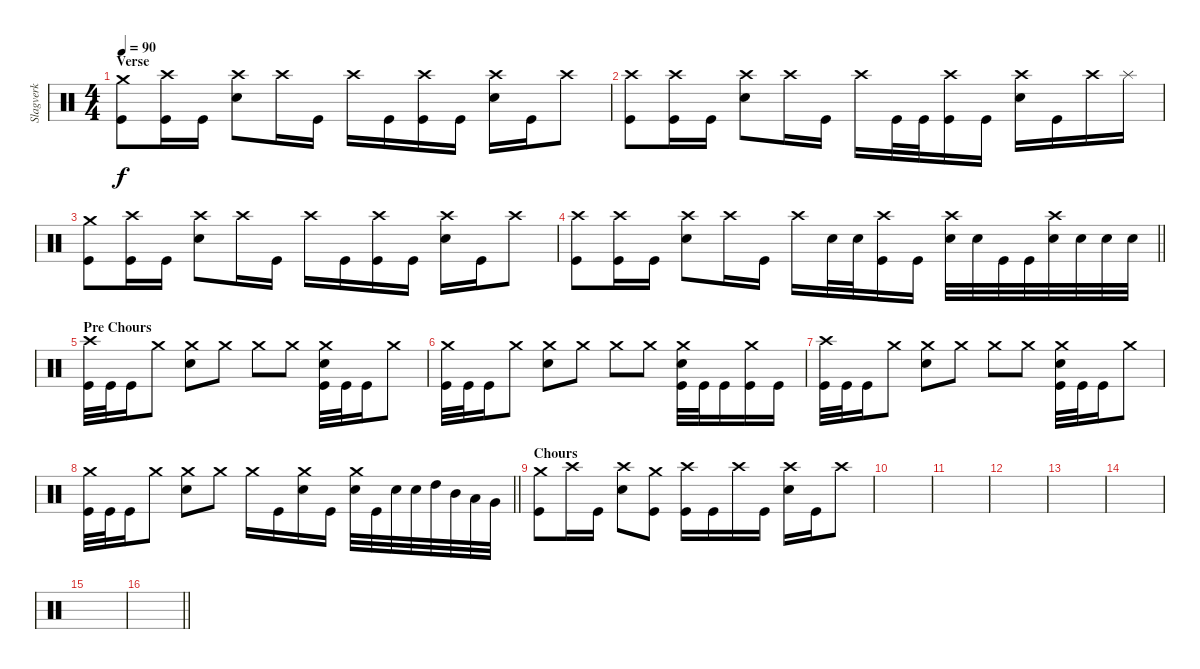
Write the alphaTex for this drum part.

\track ("Slagverk" "Slagverk") {instrument percussion}
\staff {score}
\articulation defaults
\ts (4 4)
\section ("" "Verse")
\tempo 90
\clef neutral
\ks c
("Crash medium (hit)" "Kick (hit)").8{dy f} ("Crash high (hit)" "Kick (hit)").16 "Kick (hit)".16 ("Crash high (hit)" "Electric Snare (hit)").8 "Crash high (hit)".16 "Kick (hit)".16 "Crash high (hit)".16 "Kick (hit)".16 ("Crash high (hit)" "Kick (hit)").16 "Kick (hit)".16 ("Crash high (hit)" "Electric Snare (hit)").16 "Kick (hit)".16 "Crash high (hit)".8 |
("Crash high (hit)" "Kick (hit)").8 ("Crash high (hit)" "Kick (hit)").16 "Kick (hit)".16 ("Crash high (hit)" "Electric Snare (hit)").8 "Crash high (hit)".16 "Kick (hit)".16 "Crash high (hit)".16 "Kick (hit)".32 "Kick (hit)".32 ("Crash high (hit)" "Kick (hit)").16 "Kick (hit)".16 ("Crash high (hit)" "Electric Snare (hit)").16 "Kick (hit)".16 "Crash high (hit)".16 "Splash (hit)".16 |
("Crash medium (hit)" "Kick (hit)").8 ("Crash high (hit)" "Kick (hit)").16 "Kick (hit)".16 ("Crash high (hit)" "Electric Snare (hit)").8 "Crash high (hit)".16 "Kick (hit)".16 "Crash high (hit)".16 "Kick (hit)".16 ("Crash high (hit)" "Kick (hit)").16 "Kick (hit)".16 ("Crash high (hit)" "Electric Snare (hit)").16 "Kick (hit)".16 "Crash high (hit)".8 |
\barLineRight lightlight
("Crash high (hit)" "Kick (hit)").8 ("Crash high (hit)" "Kick (hit)").16 "Kick (hit)".16 ("Crash high (hit)" "Electric Snare (hit)").8 "Crash high (hit)".16 "Kick (hit)".16 "Crash high (hit)".16 "Electric Snare (hit)".32 "Electric Snare (hit)".32 ("Crash high (hit)" "Kick (hit)").16 "Kick (hit)".16 ("Crash high (hit)" "Electric Snare (hit)").32 "Electric Snare (hit)".32 "Kick (hit)".32 "Kick (hit)".32 ("Crash high (hit)" "Electric Snare (hit)").32 "Electric Snare (hit)".32 "Electric Snare (hit)".32 "Electric Snare (hit)".32 |
\section ("" "Pre Chours")
("Crash high (hit)" "Kick (hit)").32 "Kick (hit)".32 "Kick (hit)".16 "Crash medium (hit)".8 ("Crash medium (hit)" "Electric Snare (hit)").8 "Crash medium (hit)".8 "Crash medium (hit)".8 "Crash medium (hit)".8 ("Crash medium (hit)" "Electric Snare (hit)" "Kick (hit)").32 "Kick (hit)".32 "Kick (hit)".16 "Crash medium (hit)".8 |
("Crash medium (hit)" "Kick (hit)").32 "Kick (hit)".32 "Kick (hit)".16 "Crash medium (hit)".8 ("Crash medium (hit)" "Electric Snare (hit)").8 "Crash medium (hit)".8 "Crash medium (hit)".8 "Crash medium (hit)".8 ("Crash medium (hit)" "Electric Snare (hit)" "Kick (hit)").32 "Kick (hit)".32 "Kick (hit)".16 ("Crash medium (hit)" "Kick (hit)").16 "Kick (hit)".16 |
("Crash high (hit)" "Kick (hit)").32 "Kick (hit)".32 "Kick (hit)".16 "Crash medium (hit)".8 ("Crash medium (hit)" "Electric Snare (hit)").8 "Crash medium (hit)".8 "Crash medium (hit)".8 "Crash medium (hit)".8 ("Crash medium (hit)" "Electric Snare (hit)" "Kick (hit)").32 "Kick (hit)".32 "Kick (hit)".16 "Crash medium (hit)".8 |
\barLineRight lightlight
("Crash medium (hit)" "Kick (hit)").32 "Kick (hit)".32 "Kick (hit)".16 "Crash medium (hit)".8 ("Crash medium (hit)" "Electric Snare (hit)").8 "Crash medium (hit)".8 "Crash medium (hit)".16 "Kick (hit)".16 ("Crash medium (hit)" "Electric Snare (hit)").16 "Kick (hit)".16 ("Crash medium (hit)" "Electric Snare (hit)").32 "Kick (hit)".32 "Electric Snare (hit)".32 "Electric Snare (hit)".32 "High Tom (hit)".32 "Mid Tom (hit)".32 "Low Tom (hit)".32 "Very Low Tom (hit)".32 |
\section ("" "Chours")
("Crash medium (hit)" "Kick (hit)").8 "Crash high (hit)".16 "Kick (hit)".16 ("Crash high (hit)" "Electric Snare (hit)").8 ("Crash medium (hit)" "Kick (hit)").8 ("Crash high (hit)" "Kick (hit)").16 "Kick (hit)".16 "Crash high (hit)".16 "Kick (hit)".16 ("Crash high (hit)" "Electric Snare (hit)").16 "Kick (hit)".16 "Crash high (hit)".8 |
|
|
|
|
|
|
\barLineRight lightlight
